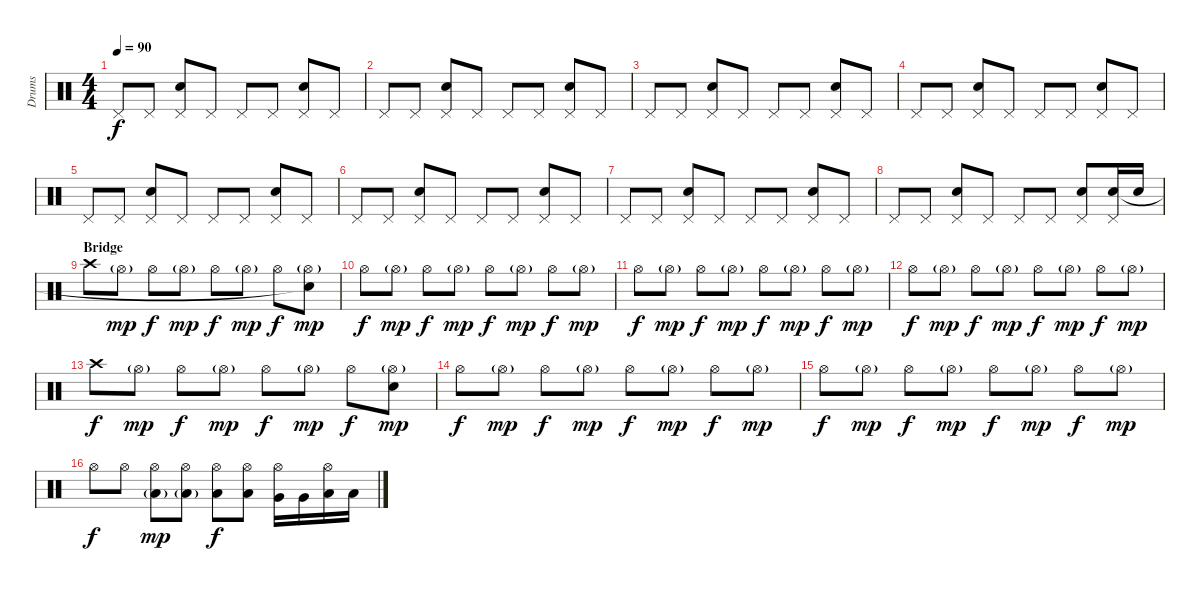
\track ("Drums" "Drums") {instrument percussion}
\staff {score}
\articulation defaults
\ts (4 4)
\tempo 90
\clef neutral
\ks c "Pedal Hi-Hat (hit)".8{dy f} "Pedal Hi-Hat (hit)".8
("Pedal Hi-Hat (hit)" "Electric Snare (hit)").8 "Pedal Hi-Hat (hit)".8 "Pedal Hi-Hat (hit)".8 "Pedal Hi-Hat (hit)".8 ("Pedal Hi-Hat (hit)" "Electric Snare (hit)").8 "Pedal Hi-Hat (hit)".8 |
"Pedal Hi-Hat (hit)".8 "Pedal Hi-Hat (hit)".8 ("Pedal Hi-Hat (hit)" "Electric Snare (hit)").8 "Pedal Hi-Hat (hit)".8 "Pedal Hi-Hat (hit)".8 "Pedal Hi-Hat (hit)".8 ("Pedal Hi-Hat (hit)" "Electric Snare (hit)").8 "Pedal Hi-Hat (hit)".8 |
"Pedal Hi-Hat (hit)".8 "Pedal Hi-Hat (hit)".8 ("Pedal Hi-Hat (hit)" "Electric Snare (hit)").8 "Pedal Hi-Hat (hit)".8 "Pedal Hi-Hat (hit)".8 "Pedal Hi-Hat (hit)".8 ("Pedal Hi-Hat (hit)" "Electric Snare (hit)").8 "Pedal Hi-Hat (hit)".8 |
"Pedal Hi-Hat (hit)".8 "Pedal Hi-Hat (hit)".8 ("Pedal Hi-Hat (hit)" "Electric Snare (hit)").8 "Pedal Hi-Hat (hit)".8 "Pedal Hi-Hat (hit)".8 "Pedal Hi-Hat (hit)".8 ("Pedal Hi-Hat (hit)" "Electric Snare (hit)").8 "Pedal Hi-Hat (hit)".8 |
"Pedal Hi-Hat (hit)".8 "Pedal Hi-Hat (hit)".8 ("Pedal Hi-Hat (hit)" "Electric Snare (hit)").8 "Pedal Hi-Hat (hit)".8 "Pedal Hi-Hat (hit)".8 "Pedal Hi-Hat (hit)".8 ("Pedal Hi-Hat (hit)" "Electric Snare (hit)").8 "Pedal Hi-Hat (hit)".8 |
"Pedal Hi-Hat (hit)".8 "Pedal Hi-Hat (hit)".8 ("Pedal Hi-Hat (hit)" "Electric Snare (hit)").8 "Pedal Hi-Hat (hit)".8 "Pedal Hi-Hat (hit)".8 "Pedal Hi-Hat (hit)".8 ("Pedal Hi-Hat (hit)" "Electric Snare (hit)").8 "Pedal Hi-Hat (hit)".8 |
"Pedal Hi-Hat (hit)".8 "Pedal Hi-Hat (hit)".8 ("Pedal Hi-Hat (hit)" "Electric Snare (hit)").8 "Pedal Hi-Hat (hit)".8 "Pedal Hi-Hat (hit)".8 "Pedal Hi-Hat (hit)".8 ("Pedal Hi-Hat (hit)" "Electric Snare (hit)").8 "Pedal Hi-Hat (hit)".8 |
"Pedal Hi-Hat (hit)".8 "Pedal Hi-Hat (hit)".8 ("Pedal Hi-Hat (hit)" "Electric Snare (hit)").8 "Pedal Hi-Hat (hit)".8 "Pedal Hi-Hat (hit)".8 "Pedal Hi-Hat (hit)".8 ("Pedal Hi-Hat (hit)" "Electric Snare (hit)").8 ("Pedal Hi-Hat (hit)" "Electric Snare (hit)").16 "Electric Snare (hit)".16 |
\section ("" "Bridge")
"Crash high (hit)".8 "Hi-Hat (open)"{g}.8{dy mp} "Hi-Hat (open)".8{dy f} "Hi-Hat (open)"{g}.8{dy mp} "Hi-Hat (open)".8{dy f} "Hi-Hat (open)"{g}.8{dy mp} "Hi-Hat (open)".8{dy f} ("Hi-Hat (open)"{g} "Snare (hit)"{t}).8{dy mp} |
"Hi-Hat (open)".8{dy f} "Hi-Hat (open)"{g}.8{dy mp} "Hi-Hat (open)".8{dy f} "Hi-Hat (open)"{g}.8{dy mp} "Hi-Hat (open)".8{dy f} "Hi-Hat (open)"{g}.8{dy mp} "Hi-Hat (open)".8{dy f} "Hi-Hat (open)"{g}.8{dy mp} |
"Hi-Hat (open)".8{dy f} "Hi-Hat (open)"{g}.8{dy mp} "Hi-Hat (open)".8{dy f} "Hi-Hat (open)"{g}.8{dy mp} "Hi-Hat (open)".8{dy f} "Hi-Hat (open)"{g}.8{dy mp} "Hi-Hat (open)".8{dy f} "Hi-Hat (open)"{g}.8{dy mp} |
"Hi-Hat (open)".8{dy f} "Hi-Hat (open)"{g}.8{dy mp} "Hi-Hat (open)".8{dy f} "Hi-Hat (open)"{g}.8{dy mp} "Hi-Hat (open)".8{dy f} "Hi-Hat (open)"{g}.8{dy mp} "Hi-Hat (open)".8{dy f} "Hi-Hat (open)"{g}.8{dy mp} |
"Crash high (hit)".8{dy f} "Hi-Hat (open)"{g}.8{dy mp} "Hi-Hat (open)".8{dy f} "Hi-Hat (open)"{g}.8{dy mp} "Hi-Hat (open)".8{dy f} "Hi-Hat (open)"{g}.8{dy mp} "Hi-Hat (open)".8{dy f} ("Hi-Hat (open)"{g} "Snare (hit)").8{dy mp} |
"Hi-Hat (open)".8{dy f} "Hi-Hat (open)"{g}.8{dy mp} "Hi-Hat (open)".8{dy f} "Hi-Hat (open)"{g}.8{dy mp} "Hi-Hat (open)".8{dy f} "Hi-Hat (open)"{g}.8{dy mp} "Hi-Hat (open)".8{dy f} "Hi-Hat (open)"{g}.8{dy mp} |
"Hi-Hat (open)".8{dy f} "Hi-Hat (open)"{g}.8{dy mp} "Hi-Hat (open)".8{dy f} "Hi-Hat (open)"{g}.8{dy mp} "Hi-Hat (open)".8{dy f} "Hi-Hat (open)"{g}.8{dy mp} "Hi-Hat (open)".8{dy f} "Hi-Hat (open)"{g}.8{dy mp} |
"Hi-Hat (open)".8{dy f} "Hi-Hat (open)".8 ("Hi-Hat (open)" "Low Floor Tom (hit)"{g}).8{dy mp} ("Hi-Hat (open)" "Low Floor Tom (hit)"{g}).8 ("Hi-Hat (open)" "Low Floor Tom (hit)").8{dy f} ("Hi-Hat (open)" "Low Floor Tom (hit)").8 ("Hi-Hat (open)" "Very Low Tom (hit)").16 "Very Low Tom (hit)".16 ("Hi-Hat (open)" "Low Tom (hit)").16 "Low Tom (hit)".16
